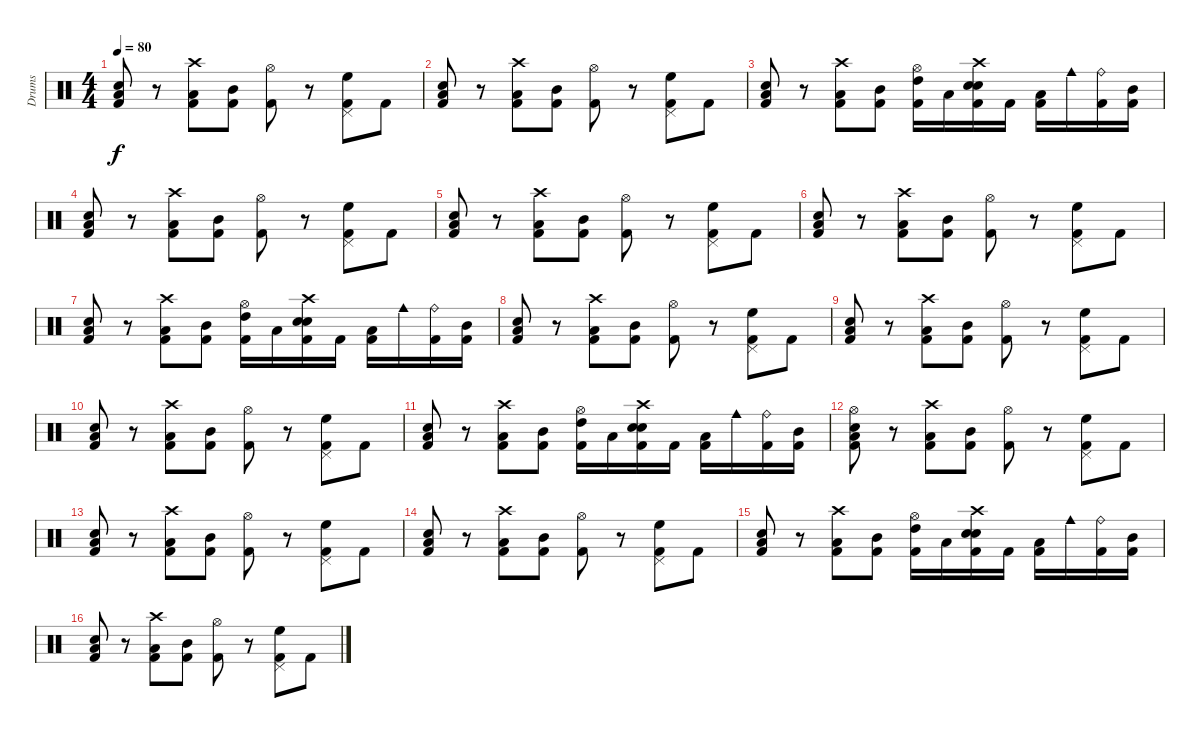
\track ("Drums" "Drums") {instrument percussion}
\staff {score}
\articulation defaults
\ts (4 4)
\tempo 80
\clef neutral
\ks c
("Kick (hit) 2" "Electric Snare (hit)" "Low Floor Tom (hit)").8{dy f} r.8 ("Kick (hit) 2" "Low Floor Tom (hit)" "Crash high (hit)").8 ("Kick (hit) 2" "Mid Tom (hit)").8 ("Kick (hit) 2" "Hi-Hat (open)").8 r.8 ("Kick (hit) 2" "Pedal Hi-Hat (hit)" "High Floor Tom (hit)").8 "Kick (hit) 2".8 |
("Kick (hit) 2" "Electric Snare (hit)" "Low Floor Tom (hit)").8 r.8 ("Kick (hit) 2" "Low Floor Tom (hit)" "Crash high (hit)").8 ("Kick (hit) 2" "Mid Tom (hit)").8 ("Kick (hit) 2" "Hi-Hat (open)").8 r.8 ("Kick (hit) 2" "Pedal Hi-Hat (hit)" "High Floor Tom (hit)").8 "Kick (hit) 2".8 |
("Kick (hit) 2" "Electric Snare (hit)" "Low Floor Tom (hit)").8 r.8 ("Kick (hit) 2" "Low Floor Tom (hit)" "Crash high (hit)").8 ("Kick (hit) 2" "Mid Tom (hit)").8 ("Kick (hit) 2" "Hi-Hat (open)" "High Tom (hit)").16 "Low Tom (hit)".16 ("Kick (hit) 2" "Electric Snare (hit)" "Crash high (hit)" "Electric Snare (hit)").16 "Kick (hit) 2".16 ("Kick (hit) 2" "Low Floor Tom (hit)").16 "Cowbell medium (hit)".16 ("Kick (hit) 2" "Ride (bell)").16 ("Kick (hit) 2" "Mid Tom (hit)").16 |
("Kick (hit) 2" "Electric Snare (hit)" "Low Floor Tom (hit)").8 r.8 ("Kick (hit) 2" "Low Floor Tom (hit)" "Crash high (hit)").8 ("Kick (hit) 2" "Mid Tom (hit)").8 ("Kick (hit) 2" "Hi-Hat (open)").8 r.8 ("Kick (hit) 2" "Pedal Hi-Hat (hit)" "High Floor Tom (hit)").8 "Kick (hit) 2".8 |
("Kick (hit) 2" "Electric Snare (hit)" "Low Floor Tom (hit)").8 r.8 ("Kick (hit) 2" "Low Floor Tom (hit)" "Crash high (hit)").8 ("Kick (hit) 2" "Mid Tom (hit)").8 ("Kick (hit) 2" "Hi-Hat (open)").8 r.8 ("Kick (hit) 2" "Pedal Hi-Hat (hit)" "High Floor Tom (hit)").8 "Kick (hit) 2".8 |
("Kick (hit) 2" "Electric Snare (hit)" "Low Floor Tom (hit)").8 r.8 ("Kick (hit) 2" "Low Floor Tom (hit)" "Crash high (hit)").8 ("Kick (hit) 2" "Mid Tom (hit)").8 ("Kick (hit) 2" "Hi-Hat (open)").8 r.8 ("Kick (hit) 2" "Pedal Hi-Hat (hit)" "High Floor Tom (hit)").8 "Kick (hit) 2".8 |
("Kick (hit) 2" "Electric Snare (hit)" "Low Floor Tom (hit)").8 r.8 ("Kick (hit) 2" "Low Floor Tom (hit)" "Crash high (hit)").8 ("Kick (hit) 2" "Mid Tom (hit)").8 ("Kick (hit) 2" "Hi-Hat (open)" "High Tom (hit)").16 "Low Tom (hit)".16 ("Kick (hit) 2" "Electric Snare (hit)" "Crash high (hit)" "Electric Snare (hit)").16 "Kick (hit) 2".16 ("Kick (hit) 2" "Low Floor Tom (hit)").16 "Cowbell medium (hit)".16 ("Kick (hit) 2" "Ride (bell)").16 ("Kick (hit) 2" "Mid Tom (hit)").16 |
("Kick (hit) 2" "Electric Snare (hit)" "Low Floor Tom (hit)").8 r.8 ("Kick (hit) 2" "Low Floor Tom (hit)" "Crash high (hit)").8 ("Kick (hit) 2" "Mid Tom (hit)").8 ("Kick (hit) 2" "Hi-Hat (open)").8 r.8 ("Kick (hit) 2" "Pedal Hi-Hat (hit)" "High Floor Tom (hit)").8 "Kick (hit) 2".8 |
("Kick (hit) 2" "Electric Snare (hit)" "Low Floor Tom (hit)").8 r.8 ("Kick (hit) 2" "Low Floor Tom (hit)" "Crash high (hit)").8 ("Kick (hit) 2" "Mid Tom (hit)").8 ("Kick (hit) 2" "Hi-Hat (open)").8 r.8 ("Kick (hit) 2" "Pedal Hi-Hat (hit)" "High Floor Tom (hit)").8 "Kick (hit) 2".8 |
("Kick (hit) 2" "Electric Snare (hit)" "Low Floor Tom (hit)").8 r.8 ("Kick (hit) 2" "Low Floor Tom (hit)" "Crash high (hit)").8 ("Kick (hit) 2" "Mid Tom (hit)").8 ("Kick (hit) 2" "Hi-Hat (open)").8 r.8 ("Kick (hit) 2" "Pedal Hi-Hat (hit)" "High Floor Tom (hit)").8 "Kick (hit) 2".8 |
("Kick (hit) 2" "Electric Snare (hit)" "Low Floor Tom (hit)").8 r.8 ("Kick (hit) 2" "Low Floor Tom (hit)" "Crash high (hit)").8 ("Kick (hit) 2" "Mid Tom (hit)").8 ("Kick (hit) 2" "Hi-Hat (open)" "High Tom (hit)").16 "Low Tom (hit)".16 ("Kick (hit) 2" "Electric Snare (hit)" "Crash high (hit)" "Electric Snare (hit)").16 "Kick (hit) 2".16 ("Kick (hit) 2" "Low Floor Tom (hit)").16 "Cowbell medium (hit)".16 ("Kick (hit) 2" "Ride (bell)").16 ("Kick (hit) 2" "Mid Tom (hit)").16 |
("Kick (hit) 2" "Hi-Hat (open)" "Electric Snare (hit)" "Low Floor Tom (hit)").8 r.8 ("Kick (hit) 2" "Low Floor Tom (hit)" "Crash high (hit)").8 ("Kick (hit) 2" "Mid Tom (hit)").8 ("Kick (hit) 2" "Hi-Hat (open)").8 r.8 ("Kick (hit) 2" "Pedal Hi-Hat (hit)" "High Floor Tom (hit)").8 "Kick (hit) 2".8 |
("Kick (hit) 2" "Electric Snare (hit)" "Low Floor Tom (hit)").8 r.8 ("Kick (hit) 2" "Low Floor Tom (hit)" "Crash high (hit)").8 ("Kick (hit) 2" "Mid Tom (hit)").8 ("Kick (hit) 2" "Hi-Hat (open)").8 r.8 ("Kick (hit) 2" "Pedal Hi-Hat (hit)" "High Floor Tom (hit)").8 "Kick (hit) 2".8 |
("Kick (hit) 2" "Electric Snare (hit)" "Low Floor Tom (hit)").8 r.8 ("Kick (hit) 2" "Low Floor Tom (hit)" "Crash high (hit)").8 ("Kick (hit) 2" "Mid Tom (hit)").8 ("Kick (hit) 2" "Hi-Hat (open)").8 r.8 ("Kick (hit) 2" "Pedal Hi-Hat (hit)" "High Floor Tom (hit)").8 "Kick (hit) 2".8 |
("Kick (hit) 2" "Electric Snare (hit)" "Low Floor Tom (hit)").8 r.8 ("Kick (hit) 2" "Low Floor Tom (hit)" "Crash high (hit)").8 ("Kick (hit) 2" "Mid Tom (hit)").8 ("Kick (hit) 2" "Hi-Hat (open)" "High Tom (hit)").16 "Low Tom (hit)".16 ("Kick (hit) 2" "Electric Snare (hit)" "Crash high (hit)" "Electric Snare (hit)").16 "Kick (hit) 2".16 ("Kick (hit) 2" "Low Floor Tom (hit)").16 "Cowbell medium (hit)".16 ("Kick (hit) 2" "Ride (bell)").16 ("Kick (hit) 2" "Mid Tom (hit)").16 |
("Kick (hit) 2" "Electric Snare (hit)" "Low Floor Tom (hit)").8 r.8 ("Kick (hit) 2" "Low Floor Tom (hit)" "Crash high (hit)").8 ("Kick (hit) 2" "Mid Tom (hit)").8 ("Kick (hit) 2" "Hi-Hat (open)").8 r.8 ("Kick (hit) 2" "Pedal Hi-Hat (hit)" "High Floor Tom (hit)").8 "Kick (hit) 2".8
